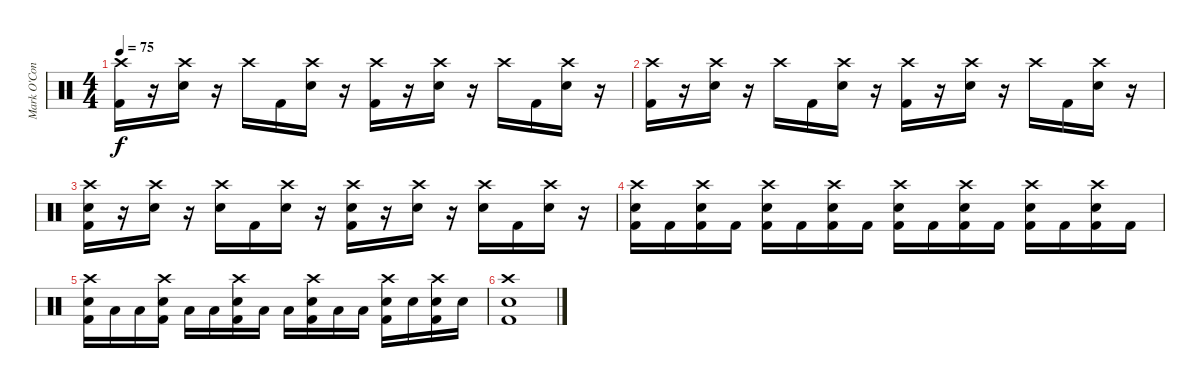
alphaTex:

\track ("Mark O'Connell (Drums)" "Mark O'Con") {instrument percussion}
\staff {score}
\articulation defaults
\ts (4 4)
\tempo 75
\clef neutral
\ks c
("Crash high (hit)" "Kick (hit) 2").16{dy f} r.16 ("Crash high (hit)" "Electric Snare (hit)").16 r.16 "Crash high (hit)".16 "Kick (hit) 2".16 ("Crash high (hit)" "Electric Snare (hit)").16 r.16 ("Crash high (hit)" "Kick (hit) 2").16 r.16 ("Crash high (hit)" "Electric Snare (hit)").16 r.16 "Crash high (hit)".16 "Kick (hit) 2".16 ("Crash high (hit)" "Electric Snare (hit)").16 r.16 |
("Crash high (hit)" "Kick (hit) 2").16 r.16 ("Crash high (hit)" "Electric Snare (hit)").16 r.16 "Crash high (hit)".16 "Kick (hit) 2".16 ("Crash high (hit)" "Electric Snare (hit)").16 r.16 ("Crash high (hit)" "Kick (hit) 2").16 r.16 ("Crash high (hit)" "Electric Snare (hit)").16 r.16 "Crash high (hit)".16 "Kick (hit) 2".16 ("Crash high (hit)" "Electric Snare (hit)").16 r.16 |
("Crash high (hit)" "Electric Snare (hit)" "Kick (hit) 2").16 r.16 ("Crash high (hit)" "Electric Snare (hit)").16 r.16 ("Crash high (hit)" "Electric Snare (hit)").16 "Kick (hit) 2".16 ("Crash high (hit)" "Electric Snare (hit)").16 r.16 ("Crash high (hit)" "Electric Snare (hit)" "Kick (hit) 2").16 r.16 ("Crash high (hit)" "Electric Snare (hit)").16 r.16 ("Crash high (hit)" "Electric Snare (hit)").16 "Kick (hit) 2".16 ("Crash high (hit)" "Electric Snare (hit)").16 r.16 |
("Crash high (hit)" "Electric Snare (hit)" "Kick (hit) 2").16 "Kick (hit) 2".16 ("Crash high (hit)" "Electric Snare (hit)" "Kick (hit) 2").16 "Kick (hit) 2".16 ("Crash high (hit)" "Electric Snare (hit)" "Kick (hit) 2").16 "Kick (hit) 2".16 ("Crash high (hit)" "Electric Snare (hit)" "Kick (hit) 2").16 "Kick (hit) 2".16 ("Crash high (hit)" "Electric Snare (hit)" "Kick (hit) 2").16 "Kick (hit) 2".16 ("Crash high (hit)" "Electric Snare (hit)" "Kick (hit) 2").16 "Kick (hit) 2".16 ("Crash high (hit)" "Electric Snare (hit)" "Kick (hit) 2").16 "Kick (hit) 2".16 ("Crash high (hit)" "Electric Snare (hit)" "Kick (hit) 2").16 "Kick (hit) 2".16 |
("Crash high (hit)" "Electric Snare (hit)" "Kick (hit) 2").16 "Low Tom (hit)".16 "Low Tom (hit)".16 ("Crash high (hit)" "Electric Snare (hit)" "Kick (hit) 2").16 "Low Tom (hit)".16 "Low Tom (hit)".16 ("Crash high (hit)" "Electric Snare (hit)" "Kick (hit) 2").16 "Low Tom (hit)".16 "Low Tom (hit)".16 ("Crash high (hit)" "Electric Snare (hit)" "Kick (hit) 2").16 "Low Tom (hit)".16 "Low Tom (hit)".16 ("Crash high (hit)" "Electric Snare (hit)" "Kick (hit) 2").16 "Electric Snare (hit)".16 ("Crash high (hit)" "Electric Snare (hit)" "Kick (hit) 2").16 "Electric Snare (hit)".16 |
("Crash high (hit)" "Electric Snare (hit)" "Kick (hit) 2").1
